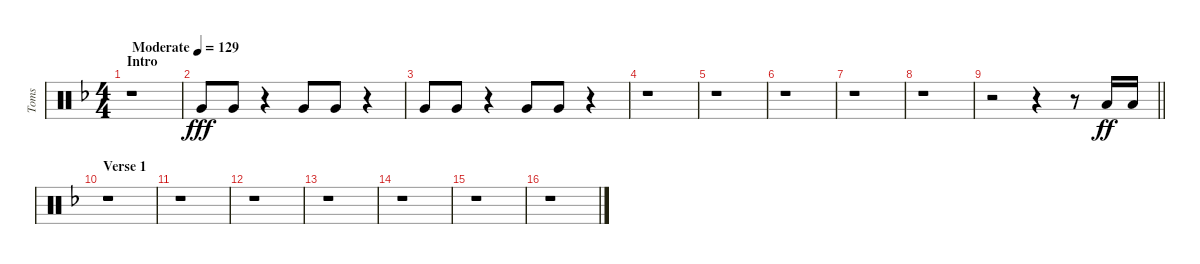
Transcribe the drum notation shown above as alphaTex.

\track ("Toms" "Toms") {instrument percussion}
\staff {score}
\articulation defaults
\ts (4 4)
\section ("" "Intro")
\tempo (129 "Moderate")
\clef neutral
\ks dminor
r.1{dy fff} |
"Very Low Tom (hit)".8{volume 16 balance 3 beam Up} "Very Low Tom (hit)".8{beam Up} r.4 "Very Low Tom (hit)".8 "Very Low Tom (hit)".8 r.4 |
"Very Low Tom (hit)".8 "Very Low Tom (hit)".8 r.4 "Very Low Tom (hit)".8 "Very Low Tom (hit)".8 r.4 |
r.1 |
r.1 |
r.1 |
r.1 |
r.1 |
\barLineRight lightlight
r.2 r.4 r.8 "Low Tom (hit)".16{dy ff balance 6} "Low Tom (hit)".16 |
\section ("" "Verse 1")
r.1 |
r.1 |
r.1 |
r.1 |
r.1 |
r.1 |
r.1
